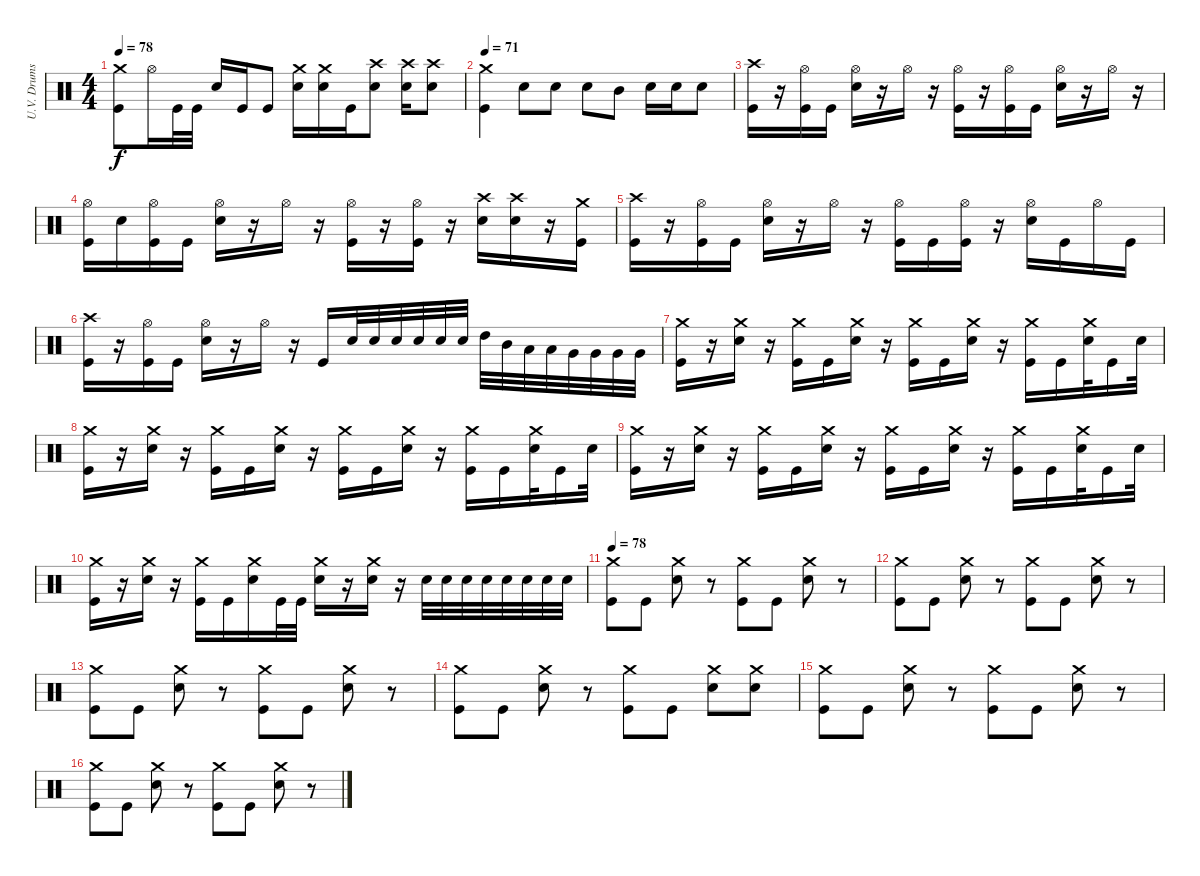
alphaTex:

\track ("U.V. Drums" "U.V. Drums") {instrument percussion}
\staff {score}
\articulation defaults
\ts (4 4)
\tempo 78
\clef neutral
\ks c
("Crash medium (hit)" "Kick (hit)").8{dy f} "Hi-Hat (open)".16 "Kick (hit)".32 "Kick (hit)".32 "Electric Snare (hit)".16 "Kick (hit)".16 "Kick (hit)".8 ("Crash medium (hit)" "Electric Snare (hit)").16 ("Crash medium (hit)" "Electric Snare (hit)").16 "Kick (hit)".16 ("Crash high (hit)" "Electric Snare (hit)").8 ("Crash high (hit)" "Electric Snare (hit)").16 ("Crash high (hit)" "Electric Snare (hit)").8 |
\tempo 71
("Crash medium (hit)" "Kick (hit)").4 "Electric Snare (hit)".8 "Electric Snare (hit)".8 "Electric Snare (hit)".8 "Mid Tom (hit)".8 "Electric Snare (hit)".16 "Electric Snare (hit)".16 "Electric Snare (hit)".8 |
("Crash high (hit)" "Kick (hit)").16 r.16 ("Hi-Hat (open)" "Kick (hit)").16 "Kick (hit)".16 ("Hi-Hat (open)" "Electric Snare (hit)").16 r.16 "Hi-Hat (open)".16 r.16 ("Hi-Hat (open)" "Kick (hit)").16 r.16 ("Hi-Hat (open)" "Kick (hit)").16 "Kick (hit)".16 ("Hi-Hat (open)" "Electric Snare (hit)").16 r.16 "Hi-Hat (open)".16 r.16 |
("Hi-Hat (open)" "Kick (hit)").16 "Electric Snare (hit)".16 ("Hi-Hat (open)" "Kick (hit)").16 "Kick (hit)".16 ("Hi-Hat (open)" "Electric Snare (hit)").16 r.16 "Hi-Hat (open)".16 r.16 ("Hi-Hat (open)" "Kick (hit)").16 r.16 ("Hi-Hat (open)" "Kick (hit)").16 r.16 ("Crash high (hit)" "Electric Snare (hit)").16 ("Crash high (hit)" "Electric Snare (hit)").16 r.16 ("Crash medium (hit)" "Kick (hit)").16 |
("Crash high (hit)" "Kick (hit)").16 r.16 ("Hi-Hat (open)" "Kick (hit)").16 "Kick (hit)".16 ("Hi-Hat (open)" "Electric Snare (hit)").16 r.16 "Hi-Hat (open)".16 r.16 ("Hi-Hat (open)" "Kick (hit)").16 "Kick (hit)".16 ("Hi-Hat (open)" "Kick (hit)").16 r.16 ("Hi-Hat (open)" "Electric Snare (hit)").16 "Kick (hit)".16 "Hi-Hat (open)".16 "Kick (hit)".16 |
("Crash high (hit)" "Kick (hit)").16 r.16 ("Hi-Hat (open)" "Kick (hit)").16 "Kick (hit)".16 ("Hi-Hat (open)" "Electric Snare (hit)").16 r.16 "Hi-Hat (open)".16 r.16 "Kick (hit)".16 "Electric Snare (hit)".32 "Electric Snare (hit)".32 "Electric Snare (hit)".32 "Electric Snare (hit)".32 "Electric Snare (hit)".32 "Electric Snare (hit)".32 "High Tom (hit)".32 "Mid Tom (hit)".32 "Low Tom (hit)".32 "Low Tom (hit)".32 "Very Low Tom (hit)".32 "Very Low Tom (hit)".32 "Very Low Tom (hit)".32 "Very Low Tom (hit)".32 |
("Crash medium (hit)" "Kick (hit)").16 r.16 ("Crash medium (hit)" "Electric Snare (hit)").16 r.16 ("Crash medium (hit)" "Kick (hit)").16 "Kick (hit)".16 ("Crash medium (hit)" "Electric Snare (hit)").16 r.16 ("Crash medium (hit)" "Kick (hit)").16 "Kick (hit)".16 ("Crash medium (hit)" "Electric Snare (hit)").16 r.16 ("Crash medium (hit)" "Kick (hit)").16 "Kick (hit)".16 ("Crash medium (hit)" "Electric Snare (hit)").32 "Kick (hit)".16 "Electric Snare (hit)".32 |
("Crash medium (hit)" "Kick (hit)").16 r.16 ("Crash medium (hit)" "Electric Snare (hit)").16 r.16 ("Crash medium (hit)" "Kick (hit)").16 "Kick (hit)".16 ("Crash medium (hit)" "Electric Snare (hit)").16 r.16 ("Crash medium (hit)" "Kick (hit)").16 "Kick (hit)".16 ("Crash medium (hit)" "Electric Snare (hit)").16 r.16 ("Crash medium (hit)" "Kick (hit)").16 "Kick (hit)".16 ("Crash medium (hit)" "Electric Snare (hit)").32 "Kick (hit)".16 "Electric Snare (hit)".32 |
("Crash medium (hit)" "Kick (hit)").16 r.16 ("Crash medium (hit)" "Electric Snare (hit)").16 r.16 ("Crash medium (hit)" "Kick (hit)").16 "Kick (hit)".16 ("Crash medium (hit)" "Electric Snare (hit)").16 r.16 ("Crash medium (hit)" "Kick (hit)").16 "Kick (hit)".16 ("Crash medium (hit)" "Electric Snare (hit)").16 r.16 ("Crash medium (hit)" "Kick (hit)").16 "Kick (hit)".16 ("Crash medium (hit)" "Electric Snare (hit)").32 "Kick (hit)".16 "Electric Snare (hit)".32 |
("Crash medium (hit)" "Kick (hit)").16 r.16 ("Crash medium (hit)" "Electric Snare (hit)").16 r.16 ("Crash medium (hit)" "Kick (hit)").16 "Kick (hit)".16 ("Crash medium (hit)" "Electric Snare (hit)").16 "Kick (hit)".32 "Kick (hit)".32 ("Crash medium (hit)" "Electric Snare (hit)").16 r.16 ("Crash medium (hit)" "Electric Snare (hit)").16 r.16 "Electric Snare (hit)".32 "Electric Snare (hit)".32 "Electric Snare (hit)".32 "Electric Snare (hit)".32 "Electric Snare (hit)".32 "Electric Snare (hit)".32 "Electric Snare (hit)".32 "Electric Snare (hit)".32 |
\tempo 78
("Crash medium (hit)" "Kick (hit)").8 "Kick (hit)".8 ("Crash medium (hit)" "Electric Snare (hit)").8 r.8 ("Crash medium (hit)" "Kick (hit)").8 "Kick (hit)".8 ("Crash medium (hit)" "Electric Snare (hit)").8 r.8 |
("Crash medium (hit)" "Kick (hit)").8 "Kick (hit)".8 ("Crash medium (hit)" "Electric Snare (hit)").8 r.8 ("Crash medium (hit)" "Kick (hit)").8 "Kick (hit)".8 ("Crash medium (hit)" "Electric Snare (hit)").8 r.8 |
("Crash medium (hit)" "Kick (hit)").8 "Kick (hit)".8 ("Crash medium (hit)" "Electric Snare (hit)").8 r.8 ("Crash medium (hit)" "Kick (hit)").8 "Kick (hit)".8 ("Crash medium (hit)" "Electric Snare (hit)").8 r.8 |
("Crash medium (hit)" "Kick (hit)").8 "Kick (hit)".8 ("Crash medium (hit)" "Electric Snare (hit)").8 r.8 ("Crash medium (hit)" "Kick (hit)").8 "Kick (hit)".8 ("Crash medium (hit)" "Electric Snare (hit)").8 ("Crash medium (hit)" "Electric Snare (hit)").8 |
("Crash medium (hit)" "Kick (hit)").8 "Kick (hit)".8 ("Crash medium (hit)" "Electric Snare (hit)").8 r.8 ("Crash medium (hit)" "Kick (hit)").8 "Kick (hit)".8 ("Crash medium (hit)" "Electric Snare (hit)").8 r.8 |
("Crash medium (hit)" "Kick (hit)").8 "Kick (hit)".8 ("Crash medium (hit)" "Electric Snare (hit)").8 r.8 ("Crash medium (hit)" "Kick (hit)").8 "Kick (hit)".8 ("Crash medium (hit)" "Electric Snare (hit)").8 r.8
